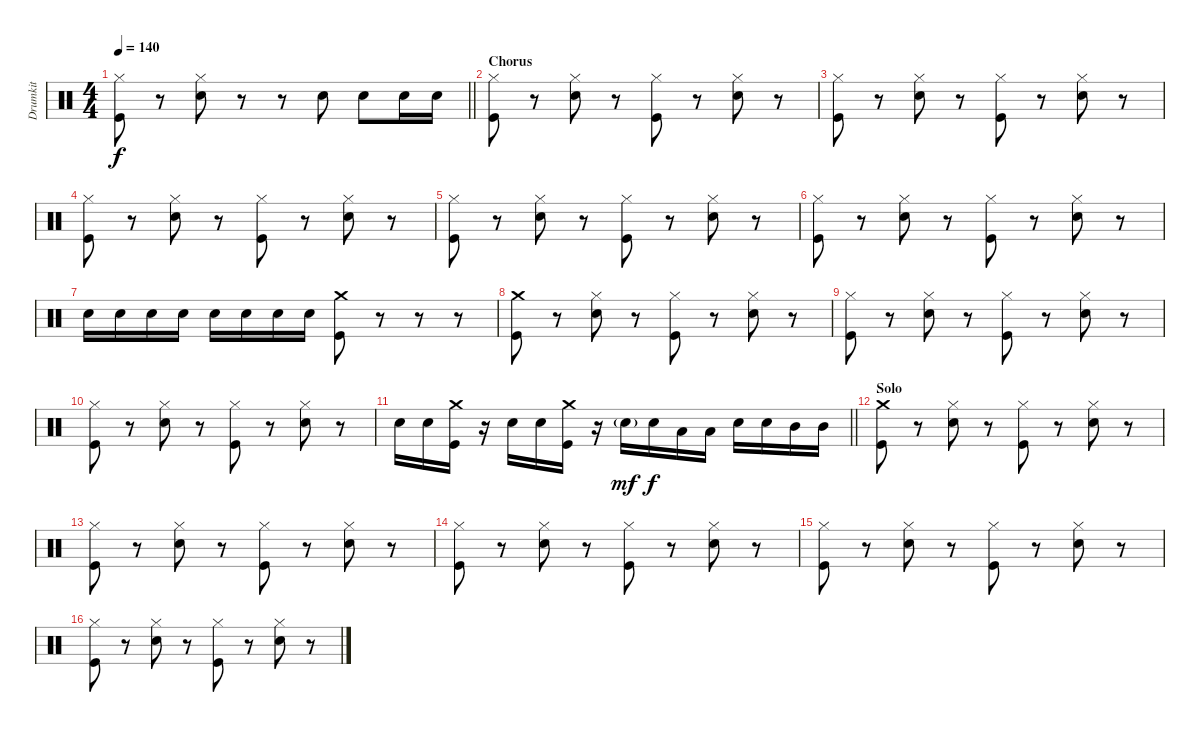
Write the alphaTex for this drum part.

\track ("Drumkit" "Drumkit") {instrument percussion}
\staff {score}
\articulation defaults
\ts (4 4)
\tempo 140
\clef neutral
\barLineRight lightlight
\ks c
("Hi-Hat (closed)" "Kick (hit)").8{dy f} r.8 ("Hi-Hat (closed)" "Snare (hit) 2").8 r.8 r.8 "Snare (hit) 2".8 "Snare (hit) 2".8 "Snare (hit) 2".16 "Snare (hit) 2".16 |
\section ("" "Chorus")
("Hi-Hat (closed)" "Kick (hit)").8 r.8 ("Hi-Hat (closed)" "Snare (hit) 2").8 r.8 ("Hi-Hat (closed)" "Kick (hit)").8 r.8 ("Hi-Hat (closed)" "Snare (hit) 2").8 r.8 |
("Hi-Hat (closed)" "Kick (hit)").8 r.8 ("Hi-Hat (closed)" "Snare (hit) 2").8 r.8 ("Hi-Hat (closed)" "Kick (hit)").8 r.8 ("Hi-Hat (closed)" "Snare (hit) 2").8 r.8 |
("Hi-Hat (closed)" "Kick (hit)").8 r.8 ("Hi-Hat (closed)" "Snare (hit) 2").8 r.8 ("Hi-Hat (closed)" "Kick (hit)").8 r.8 ("Hi-Hat (closed)" "Snare (hit) 2").8 r.8 |
("Hi-Hat (closed)" "Kick (hit)").8 r.8 ("Hi-Hat (closed)" "Snare (hit) 2").8 r.8 ("Hi-Hat (closed)" "Kick (hit)").8 r.8 ("Hi-Hat (closed)" "Snare (hit) 2").8 r.8 |
("Hi-Hat (closed)" "Kick (hit)").8 r.8 ("Hi-Hat (closed)" "Snare (hit) 2").8 r.8 ("Hi-Hat (closed)" "Kick (hit)").8 r.8 ("Hi-Hat (closed)" "Snare (hit) 2").8 r.8 |
"Snare (hit) 2".16 "Snare (hit) 2".16 "Snare (hit) 2".16 "Snare (hit) 2".16 "Snare (hit) 2".16 "Snare (hit) 2".16 "Snare (hit) 2".16 "Snare (hit) 2".16 ("Crash medium (hit)" "Kick (hit)").8 r.8 r.8 r.8 |
("Crash medium (hit)" "Kick (hit)").8 r.8 ("Hi-Hat (closed)" "Snare (hit) 2").8 r.8 ("Hi-Hat (closed)" "Kick (hit)").8 r.8 ("Hi-Hat (closed)" "Snare (hit) 2").8 r.8 |
("Hi-Hat (closed)" "Kick (hit)").8 r.8 ("Hi-Hat (closed)" "Snare (hit) 2").8 r.8 ("Hi-Hat (closed)" "Kick (hit)").8 r.8 ("Hi-Hat (closed)" "Snare (hit) 2").8 r.8 |
("Hi-Hat (closed)" "Kick (hit)").8 r.8 ("Hi-Hat (closed)" "Snare (hit) 2").8 r.8 ("Hi-Hat (closed)" "Kick (hit)").8 r.8 ("Hi-Hat (closed)" "Snare (hit) 2").8 r.8 |
\barLineRight lightlight "Snare (hit) 2".16 "Snare (hit) 2".16
("Crash medium (hit)" "Kick (hit)").16 r.16 "Snare (hit) 2".16 "Snare (hit) 2".16 ("Crash medium (hit)" "Kick (hit)").16 r.16 "Snare (hit) 2"{g}.16{dy mf} "Snare (hit) 2".16{dy f} "Low Tom (hit)".16 "Low Tom (hit)".16 "Snare (hit) 2".16 "Snare (hit) 2".16 "Mid Tom (hit)".16 "Mid Tom (hit)".16 |
\section ("" "Solo")
("Crash medium (hit)" "Kick (hit)").8 r.8 ("Hi-Hat (closed)" "Snare (hit) 2").8 r.8 ("Hi-Hat (closed)" "Kick (hit)").8 r.8 ("Hi-Hat (closed)" "Snare (hit) 2").8 r.8 |
("Hi-Hat (closed)" "Kick (hit)").8 r.8 ("Hi-Hat (closed)" "Snare (hit) 2").8 r.8 ("Hi-Hat (closed)" "Kick (hit)").8 r.8 ("Hi-Hat (closed)" "Snare (hit) 2").8 r.8 |
("Hi-Hat (closed)" "Kick (hit)").8 r.8 ("Hi-Hat (closed)" "Snare (hit) 2").8 r.8 ("Hi-Hat (closed)" "Kick (hit)").8 r.8 ("Hi-Hat (closed)" "Snare (hit) 2").8 r.8 |
("Hi-Hat (closed)" "Kick (hit)").8 r.8 ("Hi-Hat (closed)" "Snare (hit) 2").8 r.8 ("Hi-Hat (closed)" "Kick (hit)").8 r.8 ("Hi-Hat (closed)" "Snare (hit) 2").8 r.8 |
("Hi-Hat (closed)" "Kick (hit)").8 r.8 ("Hi-Hat (closed)" "Snare (hit) 2").8 r.8 ("Hi-Hat (closed)" "Kick (hit)").8 r.8 ("Hi-Hat (closed)" "Snare (hit) 2").8 r.8
